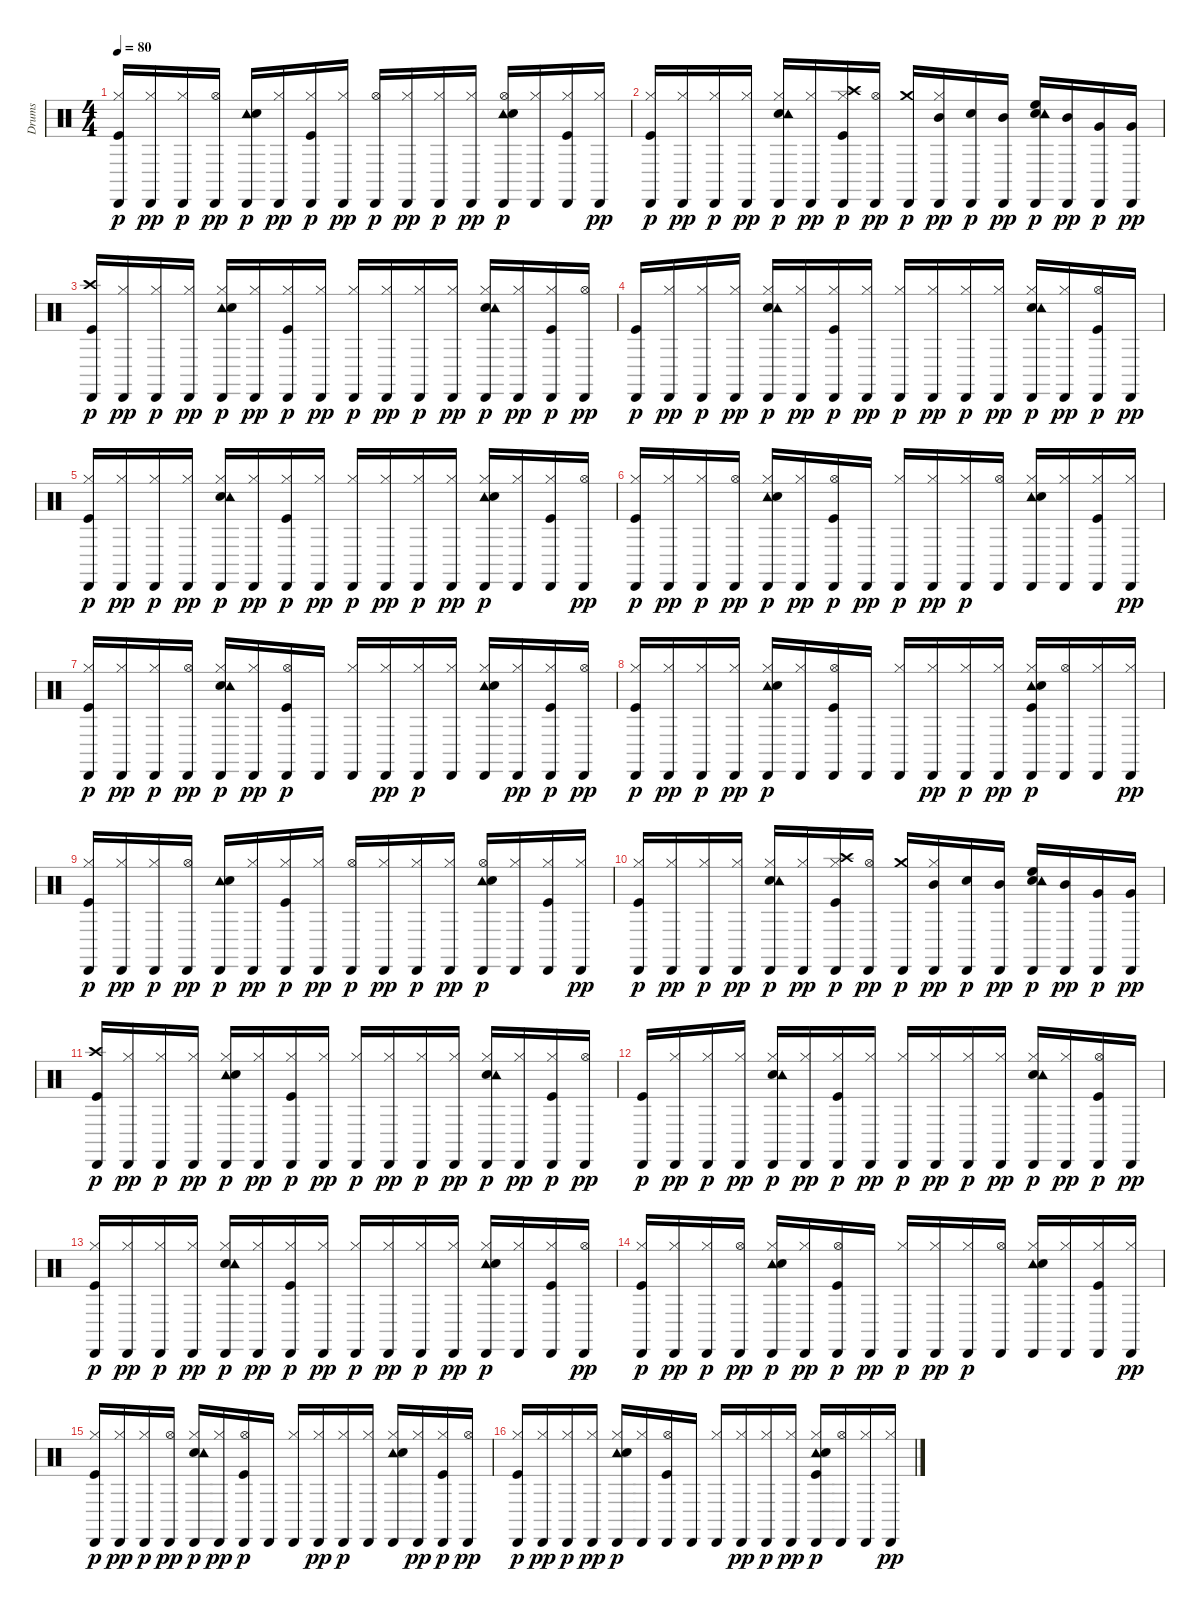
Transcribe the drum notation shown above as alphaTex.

\track ("Drums   " "Drums   ") {instrument percussion}
\staff {score}
\articulation defaults
\ts (4 4)
\tempo 80
\clef neutral
\ks c
("Kick (hit)" "Hi-Hat (closed)" "Cabasa (hit)").16{dy p} ("Hi-Hat (closed)" "Cabasa (hit)").16{dy pp} ("Hi-Hat (closed)" "Cabasa (hit)").16{dy p} ("Hi-Hat (open)" "Cabasa (hit)").16{dy pp} ("Tambourine (hit)" "Snare (hit) 2" "Cabasa (hit)").16{dy p} ("Hi-Hat (closed)" "Cabasa (hit)").16{dy pp} ("Kick (hit)" "Hi-Hat (closed)" "Cabasa (hit)").16{dy p} ("Hi-Hat (closed)" "Cabasa (hit)").16{dy pp} ("Hi-Hat (open)" "Cabasa (hit)").16{dy p} ("Hi-Hat (closed)" "Cabasa (hit)").16{dy pp} ("Hi-Hat (closed)" "Cabasa (hit)").16{dy p} ("Hi-Hat (closed)" "Cabasa (hit)").16{dy pp} ("Tambourine (hit)" "Snare (hit) 2" "Hi-Hat (open)" "Cabasa (hit)").16{dy p} ("Hi-Hat (closed)" "Cabasa (hit)").16 ("Kick (hit)" "Hi-Hat (closed)" "Cabasa (hit)").16 ("Hi-Hat (closed)" "Cabasa (hit)").16{dy pp} |
("Kick (hit)" "Hi-Hat (closed)" "Cabasa (hit)").16{dy p} ("Hi-Hat (closed)" "Cabasa (hit)").16{dy pp} ("Hi-Hat (closed)" "Cabasa (hit)").16{dy p} ("Hi-Hat (closed)" "Cabasa (hit)").16{dy pp} ("Snare (hit) 2" "Hi-Hat (closed)" "Tambourine (hit)" "Cabasa (hit)").16{dy p} ("Hi-Hat (closed)" "Cabasa (hit)").16{dy pp} ("Kick (hit)" "Hi-Hat (closed)" "Crash high (hit)" "Cabasa (hit)").16{dy p} ("Hi-Hat (open)" "Cabasa (hit)").16{dy pp} ("Crash medium (hit)" "Cabasa (hit)").16{dy p} ("Hi-Hat (closed)" "Mid Tom (hit)" "Cabasa (hit)").16{dy pp} ("Snare (hit) 2" "Cabasa (hit)").16{dy p} ("Mid Tom (hit)" "Cabasa (hit)").16{dy pp} ("Snare (hit) 2" "High Floor Tom (hit)" "Tambourine (hit)" "Cabasa (hit)").16{dy p} ("Mid Tom (hit)" "Cabasa (hit)").16{dy pp} ("Very Low Tom (hit)" "Cabasa (hit)").16{dy p} ("Very Low Tom (hit)" "Cabasa (hit)").16{dy pp} |
("Kick (hit)" "Crash high (hit)" "Cabasa (hit)").16{dy p} ("Hi-Hat (closed)" "Cabasa (hit)").16{dy pp} ("Hi-Hat (closed)" "Cabasa (hit)").16{dy p} ("Hi-Hat (closed)" "Cabasa (hit)").16{dy pp} ("Tambourine (hit)" "Snare (hit) 2" "Hi-Hat (closed)" "Cabasa (hit)").16{dy p} ("Hi-Hat (closed)" "Cabasa (hit)").16{dy pp} ("Kick (hit)" "Hi-Hat (closed)" "Cabasa (hit)").16{dy p} ("Hi-Hat (closed)" "Cabasa (hit)").16{dy pp} ("Hi-Hat (closed)" "Cabasa (hit)").16{dy p} ("Hi-Hat (closed)" "Cabasa (hit)").16{dy pp} ("Hi-Hat (closed)" "Cabasa (hit)").16{dy p} ("Hi-Hat (closed)" "Cabasa (hit)").16{dy pp} ("Snare (hit) 2" "Hi-Hat (closed)" "Tambourine (hit)" "Cabasa (hit)").16{dy p} ("Hi-Hat (closed)" "Cabasa (hit)").16{dy pp} ("Kick (hit)" "Hi-Hat (closed)" "Cabasa (hit)").16{dy p} ("Hi-Hat (open)" "Cabasa (hit)").16{dy pp} |
("Kick (hit)" "Cabasa (hit)").16{dy p} ("Hi-Hat (closed)" "Cabasa (hit)").16{dy pp} ("Hi-Hat (closed)" "Cabasa (hit)").16{dy p} ("Hi-Hat (closed)" "Cabasa (hit)").16{dy pp} ("Snare (hit) 2" "Hi-Hat (closed)" "Tambourine (hit)" "Cabasa (hit)").16{dy p} ("Hi-Hat (closed)" "Cabasa (hit)").16{dy pp} ("Kick (hit)" "Hi-Hat (closed)" "Cabasa (hit)").16{dy p} ("Hi-Hat (closed)" "Cabasa (hit)").16{dy pp} ("Hi-Hat (closed)" "Cabasa (hit)").16{dy p} ("Hi-Hat (closed)" "Cabasa (hit)").16{dy pp} ("Hi-Hat (closed)" "Cabasa (hit)").16{dy p} ("Hi-Hat (closed)" "Cabasa (hit)").16{dy pp} ("Snare (hit) 2" "Hi-Hat (closed)" "Tambourine (hit)" "Cabasa (hit)").16{dy p} ("Hi-Hat (closed)" "Cabasa (hit)").16{dy pp} ("Kick (hit)" "Hi-Hat (open)" "Cabasa (hit)").16{dy p} "Cabasa (hit)".16{dy pp} |
("Kick (hit)" "Hi-Hat (closed)" "Cabasa (hit)").16{dy p} ("Hi-Hat (closed)" "Cabasa (hit)").16{dy pp} ("Hi-Hat (closed)" "Cabasa (hit)").16{dy p} ("Hi-Hat (closed)" "Cabasa (hit)").16{dy pp} ("Snare (hit) 2" "Hi-Hat (closed)" "Tambourine (hit)" "Cabasa (hit)").16{dy p} ("Hi-Hat (closed)" "Cabasa (hit)").16{dy pp} ("Kick (hit)" "Hi-Hat (closed)" "Cabasa (hit)").16{dy p} ("Hi-Hat (closed)" "Cabasa (hit)").16{dy pp} ("Hi-Hat (closed)" "Cabasa (hit)").16{dy p} ("Hi-Hat (closed)" "Cabasa (hit)").16{dy pp} ("Hi-Hat (closed)" "Cabasa (hit)").16{dy p} ("Hi-Hat (closed)" "Cabasa (hit)").16{dy pp} ("Tambourine (hit)" "Snare (hit) 2" "Hi-Hat (closed)" "Cabasa (hit)").16{dy p} ("Hi-Hat (closed)" "Cabasa (hit)").16 ("Kick (hit)" "Hi-Hat (closed)" "Cabasa (hit)").16 ("Hi-Hat (open)" "Cabasa (hit)").16{dy pp} |
("Kick (hit)" "Hi-Hat (closed)" "Cabasa (hit)").16{dy p} ("Hi-Hat (closed)" "Cabasa (hit)").16{dy pp} ("Hi-Hat (closed)" "Cabasa (hit)").16{dy p} ("Hi-Hat (open)" "Cabasa (hit)").16{dy pp} ("Tambourine (hit)" "Snare (hit) 2" "Hi-Hat (closed)" "Cabasa (hit)").16{dy p} ("Hi-Hat (closed)" "Cabasa (hit)").16{dy pp} ("Kick (hit)" "Hi-Hat (open)" "Cabasa (hit)").16{dy p} "Cabasa (hit)".16{dy pp} ("Hi-Hat (closed)" "Cabasa (hit)").16{dy p} ("Hi-Hat (closed)" "Cabasa (hit)").16{dy pp} ("Hi-Hat (closed)" "Cabasa (hit)").16{dy p} ("Hi-Hat (open)" "Cabasa (hit)").16 ("Tambourine (hit)" "Snare (hit) 2" "Hi-Hat (closed)" "Cabasa (hit)").16 ("Hi-Hat (closed)" "Cabasa (hit)").16 ("Kick (hit)" "Hi-Hat (closed)" "Cabasa (hit)").16 ("Hi-Hat (closed)" "Cabasa (hit)").16{dy pp} |
("Kick (hit)" "Hi-Hat (closed)" "Cabasa (hit)").16{dy p} ("Hi-Hat (closed)" "Cabasa (hit)").16{dy pp} ("Hi-Hat (closed)" "Cabasa (hit)").16{dy p} ("Hi-Hat (open)" "Cabasa (hit)").16{dy pp} ("Snare (hit) 2" "Hi-Hat (closed)" "Tambourine (hit)" "Cabasa (hit)").16{dy p} ("Hi-Hat (closed)" "Cabasa (hit)").16{dy pp} ("Kick (hit)" "Hi-Hat (open)" "Cabasa (hit)").16{dy p} "Cabasa (hit)".16 ("Hi-Hat (closed)" "Cabasa (hit)").16 ("Hi-Hat (closed)" "Cabasa (hit)").16{dy pp} ("Hi-Hat (closed)" "Cabasa (hit)").16{dy p} ("Hi-Hat (closed)" "Cabasa (hit)").16 ("Tambourine (hit)" "Snare (hit) 2" "Hi-Hat (closed)" "Cabasa (hit)").16 ("Hi-Hat (closed)" "Cabasa (hit)").16{dy pp} ("Kick (hit)" "Hi-Hat (closed)" "Cabasa (hit)").16{dy p} ("Hi-Hat (open)" "Cabasa (hit)").16{dy pp} |
("Kick (hit)" "Hi-Hat (closed)" "Cabasa (hit)").16{dy p} ("Hi-Hat (closed)" "Cabasa (hit)").16{dy pp} ("Hi-Hat (closed)" "Cabasa (hit)").16{dy p} ("Hi-Hat (closed)" "Cabasa (hit)").16{dy pp} ("Tambourine (hit)" "Snare (hit) 2" "Hi-Hat (closed)" "Cabasa (hit)").16{dy p} ("Hi-Hat (closed)" "Cabasa (hit)").16 ("Kick (hit)" "Hi-Hat (open)" "Cabasa (hit)").16 "Cabasa (hit)".16 ("Hi-Hat (closed)" "Cabasa (hit)").16 ("Hi-Hat (closed)" "Cabasa (hit)").16{dy pp} ("Hi-Hat (closed)" "Cabasa (hit)").16{dy p} ("Hi-Hat (closed)" "Cabasa (hit)").16{dy pp} ("Tambourine (hit)" "Kick (hit)" "Snare (hit) 2" "Hi-Hat (closed)" "Cabasa (hit)").16{dy p} ("Hi-Hat (open)" "Cabasa (hit)").16 ("Hi-Hat (closed)" "Cabasa (hit)").16 ("Hi-Hat (closed)" "Cabasa (hit)").16{dy pp} |
("Kick (hit)" "Hi-Hat (closed)" "Cabasa (hit)").16{dy p} ("Hi-Hat (closed)" "Cabasa (hit)").16{dy pp} ("Hi-Hat (closed)" "Cabasa (hit)").16{dy p} ("Hi-Hat (open)" "Cabasa (hit)").16{dy pp} ("Tambourine (hit)" "Snare (hit) 2" "Cabasa (hit)").16{dy p} ("Hi-Hat (closed)" "Cabasa (hit)").16{dy pp} ("Kick (hit)" "Hi-Hat (closed)" "Cabasa (hit)").16{dy p} ("Hi-Hat (closed)" "Cabasa (hit)").16{dy pp} ("Hi-Hat (open)" "Cabasa (hit)").16{dy p} ("Hi-Hat (closed)" "Cabasa (hit)").16{dy pp} ("Hi-Hat (closed)" "Cabasa (hit)").16{dy p} ("Hi-Hat (closed)" "Cabasa (hit)").16{dy pp} ("Tambourine (hit)" "Snare (hit) 2" "Hi-Hat (open)" "Cabasa (hit)").16{dy p} ("Hi-Hat (closed)" "Cabasa (hit)").16 ("Kick (hit)" "Hi-Hat (closed)" "Cabasa (hit)").16 ("Hi-Hat (closed)" "Cabasa (hit)").16{dy pp} |
("Kick (hit)" "Hi-Hat (closed)" "Cabasa (hit)").16{dy p} ("Hi-Hat (closed)" "Cabasa (hit)").16{dy pp} ("Hi-Hat (closed)" "Cabasa (hit)").16{dy p} ("Hi-Hat (closed)" "Cabasa (hit)").16{dy pp} ("Snare (hit) 2" "Hi-Hat (closed)" "Tambourine (hit)" "Cabasa (hit)").16{dy p} ("Hi-Hat (closed)" "Cabasa (hit)").16{dy pp} ("Kick (hit)" "Hi-Hat (closed)" "Crash high (hit)" "Cabasa (hit)").16{dy p} ("Hi-Hat (open)" "Cabasa (hit)").16{dy pp} ("Crash medium (hit)" "Cabasa (hit)").16{dy p} ("Hi-Hat (closed)" "Mid Tom (hit)" "Cabasa (hit)").16{dy pp} ("Snare (hit) 2" "Cabasa (hit)").16{dy p} ("Mid Tom (hit)" "Cabasa (hit)").16{dy pp} ("Snare (hit) 2" "High Floor Tom (hit)" "Tambourine (hit)" "Cabasa (hit)").16{dy p} ("Mid Tom (hit)" "Cabasa (hit)").16{dy pp} ("Very Low Tom (hit)" "Cabasa (hit)").16{dy p} ("Very Low Tom (hit)" "Cabasa (hit)").16{dy pp} |
("Kick (hit)" "Crash high (hit)" "Cabasa (hit)").16{dy p} ("Hi-Hat (closed)" "Cabasa (hit)").16{dy pp} ("Hi-Hat (closed)" "Cabasa (hit)").16{dy p} ("Hi-Hat (closed)" "Cabasa (hit)").16{dy pp} ("Tambourine (hit)" "Snare (hit) 2" "Hi-Hat (closed)" "Cabasa (hit)").16{dy p} ("Hi-Hat (closed)" "Cabasa (hit)").16{dy pp} ("Kick (hit)" "Hi-Hat (closed)" "Cabasa (hit)").16{dy p} ("Hi-Hat (closed)" "Cabasa (hit)").16{dy pp} ("Hi-Hat (closed)" "Cabasa (hit)").16{dy p} ("Hi-Hat (closed)" "Cabasa (hit)").16{dy pp} ("Hi-Hat (closed)" "Cabasa (hit)").16{dy p} ("Hi-Hat (closed)" "Cabasa (hit)").16{dy pp} ("Snare (hit) 2" "Hi-Hat (closed)" "Tambourine (hit)" "Cabasa (hit)").16{dy p} ("Hi-Hat (closed)" "Cabasa (hit)").16{dy pp} ("Kick (hit)" "Hi-Hat (closed)" "Cabasa (hit)").16{dy p} ("Hi-Hat (open)" "Cabasa (hit)").16{dy pp} |
("Kick (hit)" "Cabasa (hit)").16{dy p} ("Hi-Hat (closed)" "Cabasa (hit)").16{dy pp} ("Hi-Hat (closed)" "Cabasa (hit)").16{dy p} ("Hi-Hat (closed)" "Cabasa (hit)").16{dy pp} ("Snare (hit) 2" "Hi-Hat (closed)" "Tambourine (hit)" "Cabasa (hit)").16{dy p} ("Hi-Hat (closed)" "Cabasa (hit)").16{dy pp} ("Kick (hit)" "Hi-Hat (closed)" "Cabasa (hit)").16{dy p} ("Hi-Hat (closed)" "Cabasa (hit)").16{dy pp} ("Hi-Hat (closed)" "Cabasa (hit)").16{dy p} ("Hi-Hat (closed)" "Cabasa (hit)").16{dy pp} ("Hi-Hat (closed)" "Cabasa (hit)").16{dy p} ("Hi-Hat (closed)" "Cabasa (hit)").16{dy pp} ("Snare (hit) 2" "Hi-Hat (closed)" "Tambourine (hit)" "Cabasa (hit)").16{dy p} ("Hi-Hat (closed)" "Cabasa (hit)").16{dy pp} ("Kick (hit)" "Hi-Hat (open)" "Cabasa (hit)").16{dy p} "Cabasa (hit)".16{dy pp} |
("Kick (hit)" "Hi-Hat (closed)" "Cabasa (hit)").16{dy p} ("Hi-Hat (closed)" "Cabasa (hit)").16{dy pp} ("Hi-Hat (closed)" "Cabasa (hit)").16{dy p} ("Hi-Hat (closed)" "Cabasa (hit)").16{dy pp} ("Snare (hit) 2" "Hi-Hat (closed)" "Tambourine (hit)" "Cabasa (hit)").16{dy p} ("Hi-Hat (closed)" "Cabasa (hit)").16{dy pp} ("Kick (hit)" "Hi-Hat (closed)" "Cabasa (hit)").16{dy p} ("Hi-Hat (closed)" "Cabasa (hit)").16{dy pp} ("Hi-Hat (closed)" "Cabasa (hit)").16{dy p} ("Hi-Hat (closed)" "Cabasa (hit)").16{dy pp} ("Hi-Hat (closed)" "Cabasa (hit)").16{dy p} ("Hi-Hat (closed)" "Cabasa (hit)").16{dy pp} ("Tambourine (hit)" "Snare (hit) 2" "Hi-Hat (closed)" "Cabasa (hit)").16{dy p} ("Hi-Hat (closed)" "Cabasa (hit)").16 ("Kick (hit)" "Hi-Hat (closed)" "Cabasa (hit)").16 ("Hi-Hat (open)" "Cabasa (hit)").16{dy pp} |
("Kick (hit)" "Hi-Hat (closed)" "Cabasa (hit)").16{dy p} ("Hi-Hat (closed)" "Cabasa (hit)").16{dy pp} ("Hi-Hat (closed)" "Cabasa (hit)").16{dy p} ("Hi-Hat (open)" "Cabasa (hit)").16{dy pp} ("Tambourine (hit)" "Snare (hit) 2" "Hi-Hat (closed)" "Cabasa (hit)").16{dy p} ("Hi-Hat (closed)" "Cabasa (hit)").16{dy pp} ("Kick (hit)" "Hi-Hat (open)" "Cabasa (hit)").16{dy p} "Cabasa (hit)".16{dy pp} ("Hi-Hat (closed)" "Cabasa (hit)").16{dy p} ("Hi-Hat (closed)" "Cabasa (hit)").16{dy pp} ("Hi-Hat (closed)" "Cabasa (hit)").16{dy p} ("Hi-Hat (open)" "Cabasa (hit)").16 ("Tambourine (hit)" "Snare (hit) 2" "Hi-Hat (closed)" "Cabasa (hit)").16 ("Hi-Hat (closed)" "Cabasa (hit)").16 ("Kick (hit)" "Hi-Hat (closed)" "Cabasa (hit)").16 ("Hi-Hat (closed)" "Cabasa (hit)").16{dy pp} |
("Kick (hit)" "Hi-Hat (closed)" "Cabasa (hit)").16{dy p} ("Hi-Hat (closed)" "Cabasa (hit)").16{dy pp} ("Hi-Hat (closed)" "Cabasa (hit)").16{dy p} ("Hi-Hat (open)" "Cabasa (hit)").16{dy pp} ("Snare (hit) 2" "Hi-Hat (closed)" "Tambourine (hit)" "Cabasa (hit)").16{dy p} ("Hi-Hat (closed)" "Cabasa (hit)").16{dy pp} ("Kick (hit)" "Hi-Hat (open)" "Cabasa (hit)").16{dy p} "Cabasa (hit)".16 ("Hi-Hat (closed)" "Cabasa (hit)").16 ("Hi-Hat (closed)" "Cabasa (hit)").16{dy pp} ("Hi-Hat (closed)" "Cabasa (hit)").16{dy p} ("Hi-Hat (closed)" "Cabasa (hit)").16 ("Tambourine (hit)" "Snare (hit) 2" "Hi-Hat (closed)" "Cabasa (hit)").16 ("Hi-Hat (closed)" "Cabasa (hit)").16{dy pp} ("Kick (hit)" "Hi-Hat (closed)" "Cabasa (hit)").16{dy p} ("Hi-Hat (open)" "Cabasa (hit)").16{dy pp} |
("Kick (hit)" "Hi-Hat (closed)" "Cabasa (hit)").16{dy p} ("Hi-Hat (closed)" "Cabasa (hit)").16{dy pp} ("Hi-Hat (closed)" "Cabasa (hit)").16{dy p} ("Hi-Hat (closed)" "Cabasa (hit)").16{dy pp} ("Tambourine (hit)" "Snare (hit) 2" "Hi-Hat (closed)" "Cabasa (hit)").16{dy p} ("Hi-Hat (closed)" "Cabasa (hit)").16 ("Kick (hit)" "Hi-Hat (open)" "Cabasa (hit)").16 "Cabasa (hit)".16 ("Hi-Hat (closed)" "Cabasa (hit)").16 ("Hi-Hat (closed)" "Cabasa (hit)").16{dy pp} ("Hi-Hat (closed)" "Cabasa (hit)").16{dy p} ("Hi-Hat (closed)" "Cabasa (hit)").16{dy pp} ("Tambourine (hit)" "Kick (hit)" "Snare (hit) 2" "Hi-Hat (closed)" "Cabasa (hit)").16{dy p} ("Hi-Hat (open)" "Cabasa (hit)").16 ("Hi-Hat (closed)" "Cabasa (hit)").16 ("Hi-Hat (closed)" "Cabasa (hit)").16{dy pp}
